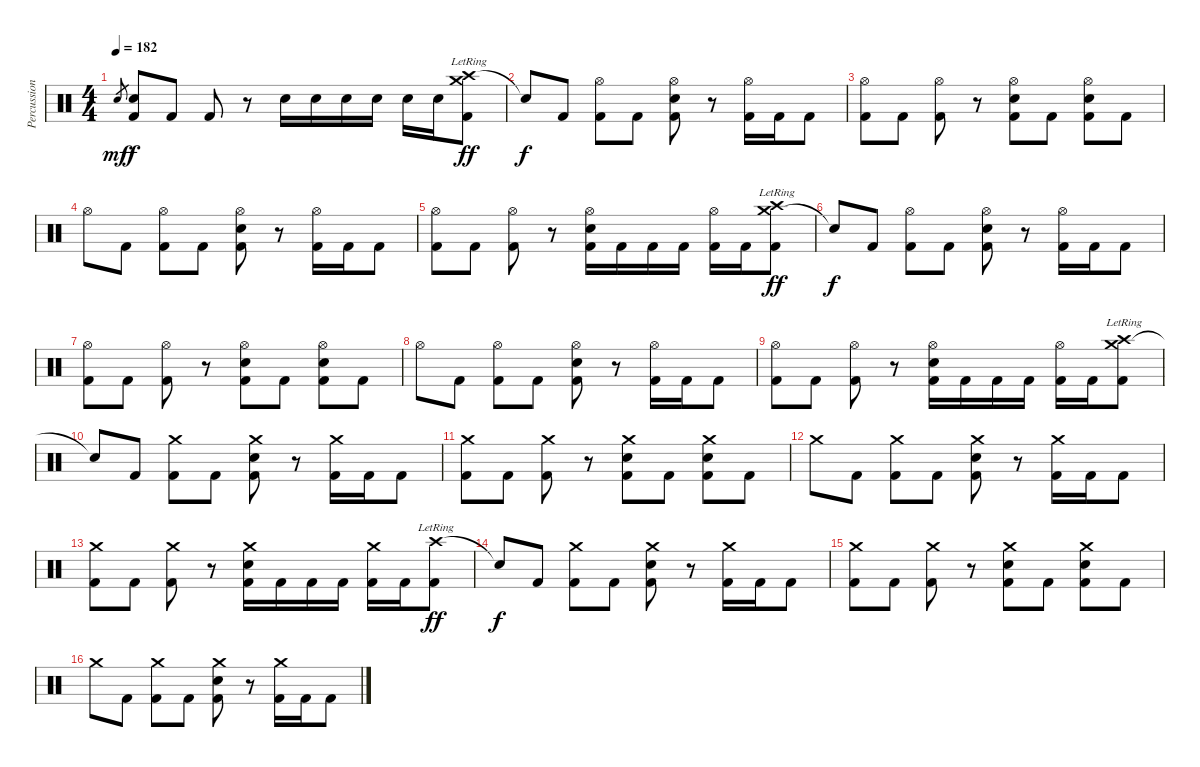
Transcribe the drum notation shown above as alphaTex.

\track ("Percussions" "Percussion") {instrument percussion}
\staff {score}
\articulation defaults
\ts (4 4)
\tempo 182
\clef neutral
\ks c "Electric Snare (hit)".8{gr dy mf}
("Electric Snare (hit)" "Kick (hit) 2").8{dy f} "Kick (hit) 2".8 "Kick (hit) 2".8 r.8 "Electric Snare (hit)".16 "Electric Snare (hit)".16 "Electric Snare (hit)".16 "Electric Snare (hit)".16 "Electric Snare (hit)".16 "Electric Snare (hit)".16 ("Crash high (hit)"{lr} "Crash medium (hit)" "Kick (hit) 2").8{dy ff} |
"Snare (hit)"{t}.8{dy f} "Kick (hit) 2".8 ("Hi-Hat (open)" "Kick (hit) 2").8 "Kick (hit) 2".8 ("Hi-Hat (open)" "Electric Snare (hit)" "Kick (hit) 2").8 r.8 ("Hi-Hat (open)" "Kick (hit) 2").16 "Kick (hit) 2".16 "Kick (hit) 2".8 |
("Hi-Hat (open)" "Kick (hit) 2").8 "Kick (hit) 2".8 ("Hi-Hat (open)" "Kick (hit) 2").8 r.8 ("Hi-Hat (open)" "Electric Snare (hit)" "Kick (hit) 2").8 "Kick (hit) 2".8 ("Hi-Hat (open)" "Electric Snare (hit)" "Kick (hit) 2").8 "Kick (hit) 2".8 |
"Hi-Hat (open)".8 "Kick (hit) 2".8 ("Hi-Hat (open)" "Kick (hit) 2").8 "Kick (hit) 2".8 ("Hi-Hat (open)" "Electric Snare (hit)" "Kick (hit) 2").8 r.8 ("Hi-Hat (open)" "Kick (hit) 2").16 "Kick (hit) 2".16 "Kick (hit) 2".8 |
("Hi-Hat (open)" "Kick (hit) 2").8 "Kick (hit) 2".8 ("Hi-Hat (open)" "Kick (hit) 2").8 r.8 ("Hi-Hat (open)" "Electric Snare (hit)" "Kick (hit) 2").16 "Kick (hit) 2".16 "Kick (hit) 2".16 "Kick (hit) 2".16 ("Hi-Hat (open)" "Kick (hit) 2").16 "Kick (hit) 2".16 ("Crash medium (hit)"{lr} "Crash high (hit)" "Kick (hit) 2").8{dy ff} |
"Snare (hit)"{t}.8{dy f} "Kick (hit) 2".8 ("Hi-Hat (open)" "Kick (hit) 2").8 "Kick (hit) 2".8 ("Hi-Hat (open)" "Electric Snare (hit)" "Kick (hit) 2").8 r.8 ("Hi-Hat (open)" "Kick (hit) 2").16 "Kick (hit) 2".16 "Kick (hit) 2".8 |
("Hi-Hat (open)" "Kick (hit) 2").8 "Kick (hit) 2".8 ("Hi-Hat (open)" "Kick (hit) 2").8 r.8 ("Hi-Hat (open)" "Electric Snare (hit)" "Kick (hit) 2").8 "Kick (hit) 2".8 ("Hi-Hat (open)" "Electric Snare (hit)" "Kick (hit) 2").8 "Kick (hit) 2".8 |
"Hi-Hat (open)".8 "Kick (hit) 2".8 ("Hi-Hat (open)" "Kick (hit) 2").8 "Kick (hit) 2".8 ("Hi-Hat (open)" "Electric Snare (hit)" "Kick (hit) 2").8 r.8 ("Hi-Hat (open)" "Kick (hit) 2").16 "Kick (hit) 2".16 "Kick (hit) 2".8 |
("Hi-Hat (open)" "Kick (hit) 2").8 "Kick (hit) 2".8 ("Hi-Hat (open)" "Kick (hit) 2").8 r.8 ("Hi-Hat (open)" "Electric Snare (hit)" "Kick (hit) 2").16 "Kick (hit) 2".16 "Kick (hit) 2".16 "Kick (hit) 2".16 ("Hi-Hat (open)" "Kick (hit) 2").16 "Kick (hit) 2".16 ("Crash medium (hit)"{lr} "Crash high (hit)"{lr} "Kick (hit) 2").8 |
"Snare (hit)"{t}.8 "Kick (hit) 2".8 ("Crash medium (hit)" "Kick (hit) 2").8 "Kick (hit) 2".8 ("Crash medium (hit)" "Electric Snare (hit)" "Kick (hit) 2").8 r.8 ("Crash medium (hit)" "Kick (hit) 2").16 "Kick (hit) 2".16 "Kick (hit) 2".8 |
("Crash medium (hit)" "Kick (hit) 2").8 "Kick (hit) 2".8 ("Crash medium (hit)" "Kick (hit) 2").8 r.8 ("Crash medium (hit)" "Electric Snare (hit)" "Kick (hit) 2").8 "Kick (hit) 2".8 ("Crash medium (hit)" "Electric Snare (hit)" "Kick (hit) 2").8 "Kick (hit) 2".8 |
"Crash medium (hit)".8 "Kick (hit) 2".8 ("Crash medium (hit)" "Kick (hit) 2").8 "Kick (hit) 2".8 ("Crash medium (hit)" "Electric Snare (hit)" "Kick (hit) 2").8 r.8 ("Crash medium (hit)" "Kick (hit) 2").16 "Kick (hit) 2".16 "Kick (hit) 2".8 |
("Crash medium (hit)" "Kick (hit) 2").8 "Kick (hit) 2".8 ("Crash medium (hit)" "Kick (hit) 2").8 r.8 ("Crash medium (hit)" "Electric Snare (hit)" "Kick (hit) 2").16 "Kick (hit) 2".16 "Kick (hit) 2".16 "Kick (hit) 2".16 ("Crash medium (hit)" "Kick (hit) 2").16 "Kick (hit) 2".16 ("Crash high (hit)"{lr} "Kick (hit) 2").8{dy ff} |
"Snare (hit)"{t}.8{dy f} "Kick (hit) 2".8 ("Crash medium (hit)" "Kick (hit) 2").8 "Kick (hit) 2".8 ("Crash medium (hit)" "Electric Snare (hit)" "Kick (hit) 2").8 r.8 ("Crash medium (hit)" "Kick (hit) 2").16 "Kick (hit) 2".16 "Kick (hit) 2".8 |
("Crash medium (hit)" "Kick (hit) 2").8 "Kick (hit) 2".8 ("Crash medium (hit)" "Kick (hit) 2").8 r.8 ("Crash medium (hit)" "Electric Snare (hit)" "Kick (hit) 2").8 "Kick (hit) 2".8 ("Crash medium (hit)" "Electric Snare (hit)" "Kick (hit) 2").8 "Kick (hit) 2".8 |
"Crash medium (hit)".8 "Kick (hit) 2".8 ("Crash medium (hit)" "Kick (hit) 2").8 "Kick (hit) 2".8 ("Crash medium (hit)" "Electric Snare (hit)" "Kick (hit) 2").8 r.8 ("Crash medium (hit)" "Kick (hit) 2").16 "Kick (hit) 2".16 "Kick (hit) 2".8
